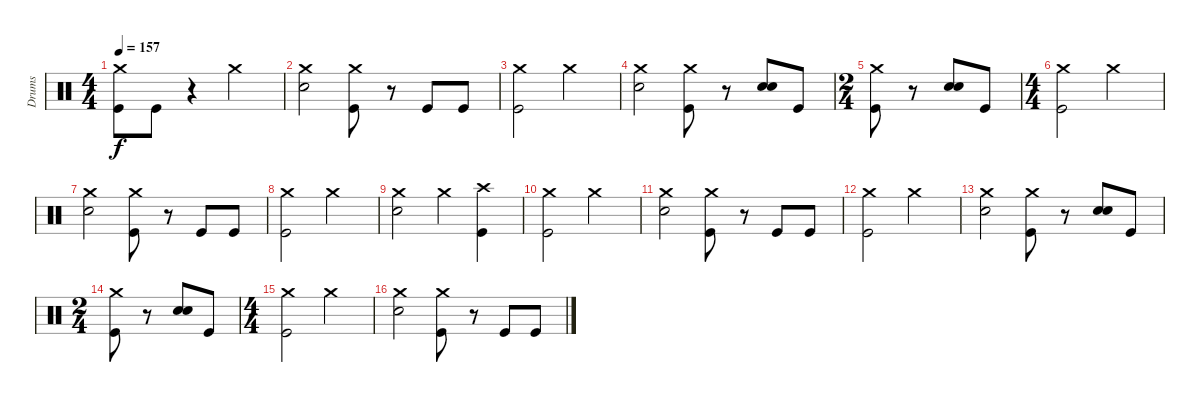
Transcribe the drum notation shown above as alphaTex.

\track ("Drums" "Drums") {instrument percussion}
\staff {score}
\articulation defaults
\ts (4 4)
\tempo 157
\clef neutral
\ks c
("Crash medium (hit)" "Kick (hit)").8{dy f} "Kick (hit)".8 r.4 "Crash medium (hit)".2 |
("Crash medium (hit)" "Electric Snare (hit)").2 ("Crash medium (hit)" "Kick (hit)").8 r.8 "Kick (hit)".8 "Kick (hit)".8 |
("Crash medium (hit)" "Kick (hit)").2 "Crash medium (hit)".2 |
("Crash medium (hit)" "Electric Snare (hit)").2 ("Crash medium (hit)" "Kick (hit)").8 r.8 ("Electric Snare (hit)" "Electric Snare (hit)").8{bd 240} "Kick (hit)".8 |
\ts (2 4)
("Crash medium (hit)" "Kick (hit)").8 r.8 ("Electric Snare (hit)" "Electric Snare (hit)").8{bd 240} "Kick (hit)".8 |
\ts (4 4)
("Crash medium (hit)" "Kick (hit)").2 "Crash medium (hit)".2 |
("Crash medium (hit)" "Electric Snare (hit)").2 ("Crash medium (hit)" "Kick (hit)").8 r.8 "Kick (hit)".8 "Kick (hit)".8 |
("Crash medium (hit)" "Kick (hit)").2 "Crash medium (hit)".2 |
("Crash medium (hit)" "Electric Snare (hit)").2 "Crash medium (hit)".4 ("Crash high (hit)" "Kick (hit)").4 |
("Crash medium (hit)" "Kick (hit)").2 "Crash medium (hit)".2 |
("Crash medium (hit)" "Electric Snare (hit)").2 ("Crash medium (hit)" "Kick (hit)").8 r.8 "Kick (hit)".8 "Kick (hit)".8 |
("Crash medium (hit)" "Kick (hit)").2 "Crash medium (hit)".2 |
("Crash medium (hit)" "Electric Snare (hit)").2 ("Crash medium (hit)" "Kick (hit)").8 r.8 ("Electric Snare (hit)" "Electric Snare (hit)").8{bd 240} "Kick (hit)".8 |
\ts (2 4)
("Crash medium (hit)" "Kick (hit)").8 r.8 ("Electric Snare (hit)" "Electric Snare (hit)").8{bd 240} "Kick (hit)".8 |
\ts (4 4)
("Crash medium (hit)" "Kick (hit)").2 "Crash medium (hit)".2 |
("Crash medium (hit)" "Electric Snare (hit)").2 ("Crash medium (hit)" "Kick (hit)").8 r.8 "Kick (hit)".8 "Kick (hit)".8
